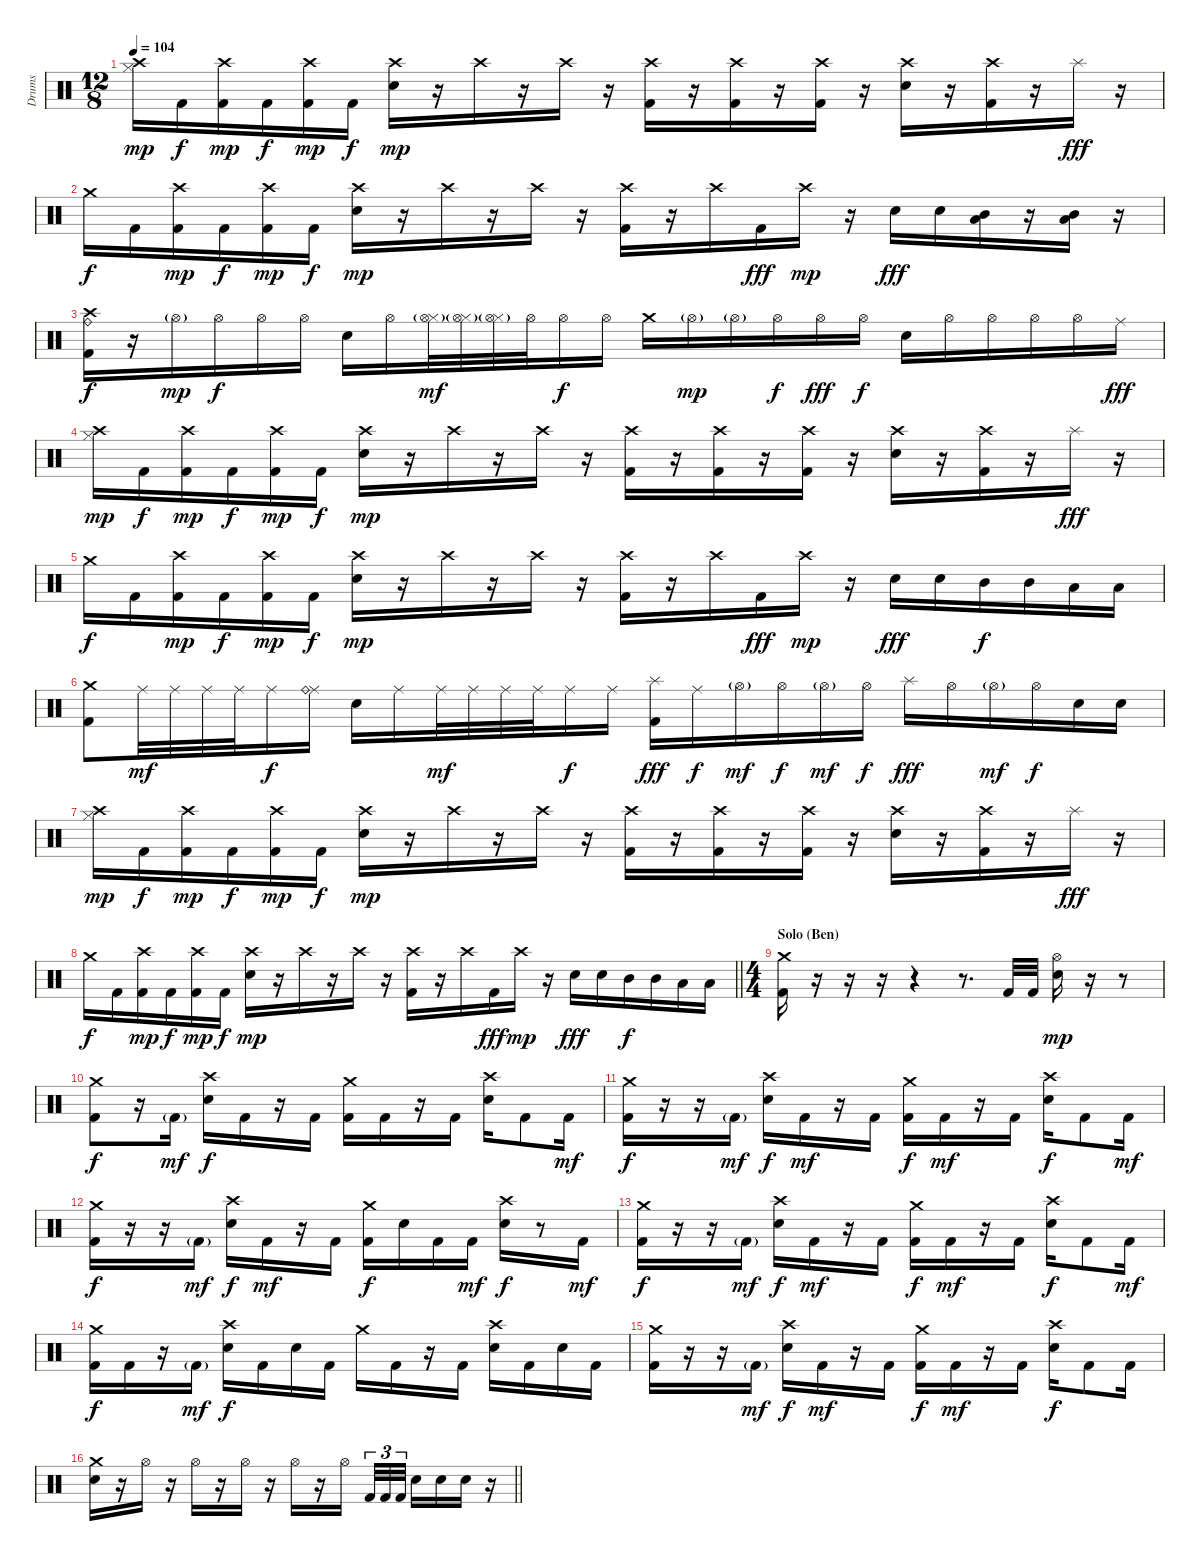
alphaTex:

\track ("Drums" "Drums") {instrument percussion}
\staff {score}
\articulation defaults
\ts (12 8)
\tempo 104
\clef neutral
\ks c
("Crash high (hit)" "Hi-Hat (closed)").16{dy mp} "Kick (hit) 2".16{dy f} ("Crash high (hit)" "Kick (hit) 2").16{dy mp} "Kick (hit) 2".16{dy f} ("Crash high (hit)" "Kick (hit) 2").16{dy mp} "Kick (hit) 2".16{dy f} ("Crash high (hit)" "Electric Snare (hit)").16{dy mp} r.16 "Crash high (hit)".16 r.16 "Crash high (hit)".16 r.16 ("Crash high (hit)" "Kick (hit) 2").16 r.16 ("Crash high (hit)" "Kick (hit) 2").16 r.16 ("Crash high (hit)" "Kick (hit) 2").16 r.16 ("Crash high (hit)" "Electric Snare (hit)").16 r.16 ("Crash high (hit)" "Kick (hit) 2").16 r.16 "Splash (hit)".16{dy fff} r.16 |
"Crash medium (hit)".16{dy f} "Kick (hit) 2".16 ("Crash high (hit)" "Kick (hit) 2").16{dy mp} "Kick (hit) 2".16{dy f} ("Crash high (hit)" "Kick (hit) 2").16{dy mp} "Kick (hit) 2".16{dy f} ("Crash high (hit)" "Electric Snare (hit)").16{dy mp} r.16 "Crash high (hit)".16 r.16 "Crash high (hit)".16 r.16 ("Crash high (hit)" "Kick (hit) 2").16 r.16 "Crash high (hit)".16 "Kick (hit) 2".16{dy fff} "Crash high (hit)".16{dy mp} r.16 "Electric Snare (hit)".16{dy fff} "Electric Snare (hit)".16 ("Mid Tom (hit)" "Low Tom (hit)").16 r.16 ("Mid Tom (hit)" "Low Tom (hit)").16 r.16 |
("Crash high (hit)" "Ride (bell)" "Kick (hit) 2").16{dy f} r.16 "Hi-Hat (open)"{g}.16{dy mp} "Hi-Hat (open)".16{dy f} "Hi-Hat (open)".16 "Hi-Hat (open)".16 "Electric Snare (hit)".16 "Hi-Hat (open)".16 ("Hi-Hat (closed)" "Hi-Hat (open)"{g}).32{dy mf} ("Hi-Hat (closed)" "Hi-Hat (open)"{g}).32 ("Hi-Hat (closed)" "Hi-Hat (open)"{g}).32 "Hi-Hat (open)".32 "Hi-Hat (open)".16{dy f} "Hi-Hat (open)".16 "Crash medium (hit)".16 "Hi-Hat (open)"{g}.16{dy mp} "Hi-Hat (open)"{g}.16 "Hi-Hat (open)".16{dy f} "Hi-Hat (open)".16{dy fff} "Hi-Hat (open)".16{dy f} "Electric Snare (hit)".16 "Hi-Hat (open)".16 "Hi-Hat (open)".16 "Hi-Hat (open)".16 "Hi-Hat (open)".16 "Ride (middle)".16{dy fff} |
("Crash high (hit)" "Hi-Hat (closed)").16{dy mp} "Kick (hit) 2".16{dy f} ("Crash high (hit)" "Kick (hit) 2").16{dy mp} "Kick (hit) 2".16{dy f} ("Crash high (hit)" "Kick (hit) 2").16{dy mp} "Kick (hit) 2".16{dy f} ("Crash high (hit)" "Electric Snare (hit)").16{dy mp} r.16 "Crash high (hit)".16 r.16 "Crash high (hit)".16 r.16 ("Crash high (hit)" "Kick (hit) 2").16 r.16 ("Crash high (hit)" "Kick (hit) 2").16 r.16 ("Crash high (hit)" "Kick (hit) 2").16 r.16 ("Crash high (hit)" "Electric Snare (hit)").16 r.16 ("Crash high (hit)" "Kick (hit) 2").16 r.16 "Splash (hit)".16{dy fff} r.16 |
"Crash medium (hit)".16{dy f} "Kick (hit) 2".16 ("Crash high (hit)" "Kick (hit) 2").16{dy mp} "Kick (hit) 2".16{dy f} ("Crash high (hit)" "Kick (hit) 2").16{dy mp} "Kick (hit) 2".16{dy f} ("Crash high (hit)" "Electric Snare (hit)").16{dy mp} r.16 "Crash high (hit)".16 r.16 "Crash high (hit)".16 r.16 ("Crash high (hit)" "Kick (hit) 2").16 r.16 "Crash high (hit)".16 "Kick (hit) 2".16{dy fff} "Crash high (hit)".16{dy mp} r.16 "Electric Snare (hit)".16{dy fff} "Electric Snare (hit)".16 "Mid Tom (hit)".16{dy f} "Mid Tom (hit)".16 "Low Tom (hit)".16 "Low Tom (hit)".16 |
("Crash medium (hit)" "Kick (hit) 2").8 "Ride (middle)".32{dy mf} "Ride (middle)".32 "Ride (middle)".32 "Ride (middle)".32 "Ride (middle)".16{dy f} ("Ride (middle)" "Ride (bell)").16 "Electric Snare (hit)".16 "Ride (middle)".16 "Ride (middle)".32{dy mf} "Ride (middle)".32 "Ride (middle)".32 "Ride (middle)".32 "Ride (middle)".16{dy f} "Ride (middle)".16 ("Splash (hit)" "Kick (hit) 2").16{dy fff} "Ride (middle)".16{dy f} "Hi-Hat (open)"{g}.16{dy mf} "Hi-Hat (open)".16{dy f} "Hi-Hat (open)"{g}.16{dy mf} "Hi-Hat (open)".16{dy f} "Splash (hit)".16{dy fff} "Hi-Hat (open)".16 "Hi-Hat (open)"{g}.16{dy mf} "Hi-Hat (open)".16{dy f} "Electric Snare (hit)".16 "Electric Snare (hit)".16 |
("Crash high (hit)" "Hi-Hat (closed)").16{dy mp} "Kick (hit) 2".16{dy f} ("Crash high (hit)" "Kick (hit) 2").16{dy mp} "Kick (hit) 2".16{dy f} ("Crash high (hit)" "Kick (hit) 2").16{dy mp} "Kick (hit) 2".16{dy f} ("Crash high (hit)" "Electric Snare (hit)").16{dy mp} r.16 "Crash high (hit)".16 r.16 "Crash high (hit)".16 r.16 ("Crash high (hit)" "Kick (hit) 2").16 r.16 ("Crash high (hit)" "Kick (hit) 2").16 r.16 ("Crash high (hit)" "Kick (hit) 2").16 r.16 ("Crash high (hit)" "Electric Snare (hit)").16 r.16 ("Crash high (hit)" "Kick (hit) 2").16 r.16 "Splash (hit)".16{dy fff} r.16 |
\barLineRight lightlight "Crash medium (hit)".16{dy f} "Kick (hit) 2".16
("Crash high (hit)" "Kick (hit) 2").16{dy mp} "Kick (hit) 2".16{dy f} ("Crash high (hit)" "Kick (hit) 2").16{dy mp} "Kick (hit) 2".16{dy f} ("Crash high (hit)" "Electric Snare (hit)").16{dy mp} r.16 "Crash high (hit)".16 r.16 "Crash high (hit)".16 r.16 ("Crash high (hit)" "Kick (hit) 2").16 r.16 "Crash high (hit)".16 "Kick (hit) 2".16{dy fff} "Crash high (hit)".16{dy mp} r.16 "Electric Snare (hit)".16{dy fff} "Electric Snare (hit)".16 "Mid Tom (hit)".16{dy f} "Mid Tom (hit)".16 "Low Tom (hit)".16 "Low Tom (hit)".16 |
\ts (4 4)
\section ("" "Solo (Ben)")
("Crash medium (hit)" "Kick (hit) 2").16 r.16{volume 0} r.16 r.16 r.4 r.8{d} "Kick (hit) 2".32{volume 14} "Kick (hit) 2".32 ("Hi-Hat (open)" "Electric Snare (hit)").16{dy mp} r.16 r.8 |
("Crash medium (hit)" "Kick (hit) 2").8{dy f} r.16 "Kick (hit) 2"{g}.16{dy mf} ("Crash high (hit)" "Electric Snare (hit)").16{dy f} "Kick (hit) 2".16 r.16 "Kick (hit) 2".16 ("Crash medium (hit)" "Kick (hit) 2").16 "Kick (hit) 2".16 r.16 "Kick (hit) 2".16 ("Crash high (hit)" "Electric Snare (hit)").16 "Kick (hit) 2".8 "Kick (hit) 2".16{dy mf} |
("Crash medium (hit)" "Kick (hit) 2").16{dy f} r.16 r.16 "Kick (hit) 2"{g}.16{dy mf} ("Crash high (hit)" "Electric Snare (hit)").16{dy f} "Kick (hit) 2".16{dy mf} r.16 "Kick (hit) 2".16 ("Crash medium (hit)" "Kick (hit) 2").16{dy f} "Kick (hit) 2".16{dy mf} r.16 "Kick (hit) 2".16 ("Crash high (hit)" "Electric Snare (hit)").16{dy f} "Kick (hit) 2".8 "Kick (hit) 2".16{dy mf} |
("Crash medium (hit)" "Kick (hit) 2").16{dy f} r.16 r.16 "Kick (hit) 2"{g}.16{dy mf} ("Crash high (hit)" "Electric Snare (hit)").16{dy f} "Kick (hit) 2".16{dy mf} r.16 "Kick (hit) 2".16 ("Crash medium (hit)" "Kick (hit) 2").16{dy f} "Electric Snare (hit)".16 "Kick (hit) 2".16 "Kick (hit) 2".16{dy mf} ("Crash high (hit)" "Electric Snare (hit)").16{dy f} r.8 "Kick (hit) 2".16{dy mf} |
("Crash medium (hit)" "Kick (hit) 2").16{dy f} r.16 r.16 "Kick (hit) 2"{g}.16{dy mf} ("Crash high (hit)" "Electric Snare (hit)").16{dy f} "Kick (hit) 2".16{dy mf} r.16 "Kick (hit) 2".16 ("Crash medium (hit)" "Kick (hit) 2").16{dy f} "Kick (hit) 2".16{dy mf} r.16 "Kick (hit) 2".16 ("Crash high (hit)" "Electric Snare (hit)").16{dy f} "Kick (hit) 2".8 "Kick (hit) 2".16{dy mf} |
("Crash medium (hit)" "Kick (hit) 2").16{dy f} "Kick (hit) 2".16 r.16 "Kick (hit) 2"{g}.16{dy mf} ("Crash high (hit)" "Electric Snare (hit)").16{dy f} "Kick (hit) 2".16 "Electric Snare (hit)".16 "Kick (hit) 2".16 "Crash medium (hit)".16 "Kick (hit) 2".16 r.16 "Kick (hit) 2".16 ("Crash high (hit)" "Electric Snare (hit)").16 "Kick (hit) 2".16 "Electric Snare (hit)".16 "Kick (hit) 2".16 |
("Crash medium (hit)" "Kick (hit) 2").16 r.16 r.16 "Kick (hit) 2"{g}.16{dy mf} ("Crash high (hit)" "Electric Snare (hit)").16{dy f} "Kick (hit) 2".16{dy mf} r.16 "Kick (hit) 2".16 ("Crash medium (hit)" "Kick (hit) 2").16{dy f} "Kick (hit) 2".16{dy mf} r.16 "Kick (hit) 2".16 ("Crash high (hit)" "Electric Snare (hit)").16{dy f} "Kick (hit) 2".8 "Kick (hit) 2".16 |
\barLineRight lightlight
("Crash medium (hit)" "Electric Snare (hit)").16 r.16 "Hi-Hat (open)".16 r.16 "Hi-Hat (open)".16 r.16 "Hi-Hat (open)".16 r.16 "Hi-Hat (open)".16 r.16 "Hi-Hat (open)".16{beam splitsecondary} "Kick (hit) 2".32{tu (3 2)} "Kick (hit) 2".32{tu (3 2)} "Kick (hit) 2".32{tu (3 2)} "Electric Snare (hit)".16 "Electric Snare (hit)".16 "Electric Snare (hit)".16 r.16
